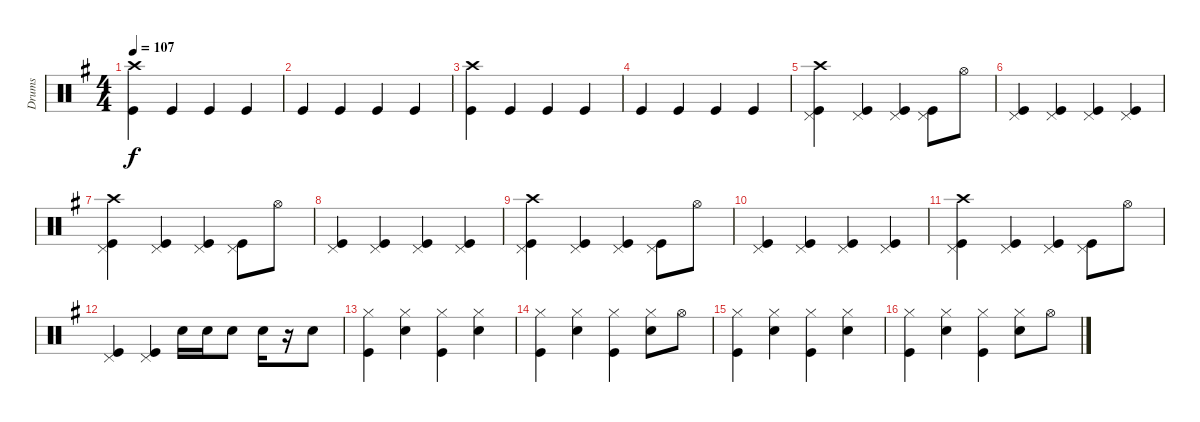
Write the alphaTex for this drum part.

\track ("Drums" "Drums") {instrument percussion}
\staff {score}
\articulation defaults
\ts (4 4)
\tempo 107
\clef neutral
\ks g
("Crash high (hit)" "Kick (hit)").4{dy f} "Kick (hit)".4 "Kick (hit)".4 "Kick (hit)".4 |
"Kick (hit)".4 "Kick (hit)".4 "Kick (hit)".4 "Kick (hit)".4 |
("Crash high (hit)" "Kick (hit)").4 "Kick (hit)".4 "Kick (hit)".4 "Kick (hit)".4 |
"Kick (hit)".4 "Kick (hit)".4 "Kick (hit)".4 "Kick (hit)".4 |
("Crash high (hit)" "Pedal Hi-Hat (hit)" "Kick (hit)").4 ("Pedal Hi-Hat (hit)" "Kick (hit)").4 ("Pedal Hi-Hat (hit)" "Kick (hit)").4 ("Pedal Hi-Hat (hit)" "Kick (hit)").8 "Hi-Hat (open)".8 |
("Pedal Hi-Hat (hit)" "Kick (hit)").4 ("Pedal Hi-Hat (hit)" "Kick (hit)").4 ("Pedal Hi-Hat (hit)" "Kick (hit)").4 ("Pedal Hi-Hat (hit)" "Kick (hit)").4 |
("Crash high (hit)" "Pedal Hi-Hat (hit)" "Kick (hit)").4 ("Pedal Hi-Hat (hit)" "Kick (hit)").4 ("Pedal Hi-Hat (hit)" "Kick (hit)").4 ("Pedal Hi-Hat (hit)" "Kick (hit)").8 "Hi-Hat (open)".8 |
("Pedal Hi-Hat (hit)" "Kick (hit)").4 ("Pedal Hi-Hat (hit)" "Kick (hit)").4 ("Pedal Hi-Hat (hit)" "Kick (hit)").4 ("Pedal Hi-Hat (hit)" "Kick (hit)").4 |
("Crash high (hit)" "Pedal Hi-Hat (hit)" "Kick (hit)").4 ("Pedal Hi-Hat (hit)" "Kick (hit)").4 ("Pedal Hi-Hat (hit)" "Kick (hit)").4 ("Pedal Hi-Hat (hit)" "Kick (hit)").8 "Hi-Hat (open)".8 |
("Pedal Hi-Hat (hit)" "Kick (hit)").4 ("Pedal Hi-Hat (hit)" "Kick (hit)").4 ("Pedal Hi-Hat (hit)" "Kick (hit)").4 ("Pedal Hi-Hat (hit)" "Kick (hit)").4 |
("Crash high (hit)" "Pedal Hi-Hat (hit)" "Kick (hit)").4 ("Pedal Hi-Hat (hit)" "Kick (hit)").4 ("Pedal Hi-Hat (hit)" "Kick (hit)").4 ("Pedal Hi-Hat (hit)" "Kick (hit)").8 "Hi-Hat (open)".8 |
("Pedal Hi-Hat (hit)" "Kick (hit)").4 ("Pedal Hi-Hat (hit)" "Kick (hit)").4 "Snare (hit) 2".16 "Snare (hit) 2".16 "Snare (hit) 2".8 "Snare (hit) 2".16 r.16 "Snare (hit) 2".8 |
("Hi-Hat (closed)" "Kick (hit)").4 ("Hi-Hat (closed)" "Snare (hit) 2").4 ("Hi-Hat (closed)" "Kick (hit)").4 ("Hi-Hat (closed)" "Snare (hit) 2").4 |
("Hi-Hat (closed)" "Kick (hit)").4 ("Hi-Hat (closed)" "Snare (hit) 2").4 ("Hi-Hat (closed)" "Kick (hit)").4 ("Hi-Hat (closed)" "Snare (hit) 2").8 "Hi-Hat (open)".8 |
("Hi-Hat (closed)" "Kick (hit)").4 ("Hi-Hat (closed)" "Snare (hit) 2").4 ("Hi-Hat (closed)" "Kick (hit)").4 ("Hi-Hat (closed)" "Snare (hit) 2").4 |
("Hi-Hat (closed)" "Kick (hit)").4 ("Hi-Hat (closed)" "Snare (hit) 2").4 ("Hi-Hat (closed)" "Kick (hit)").4 ("Hi-Hat (closed)" "Snare (hit) 2").8 "Hi-Hat (open)".8
